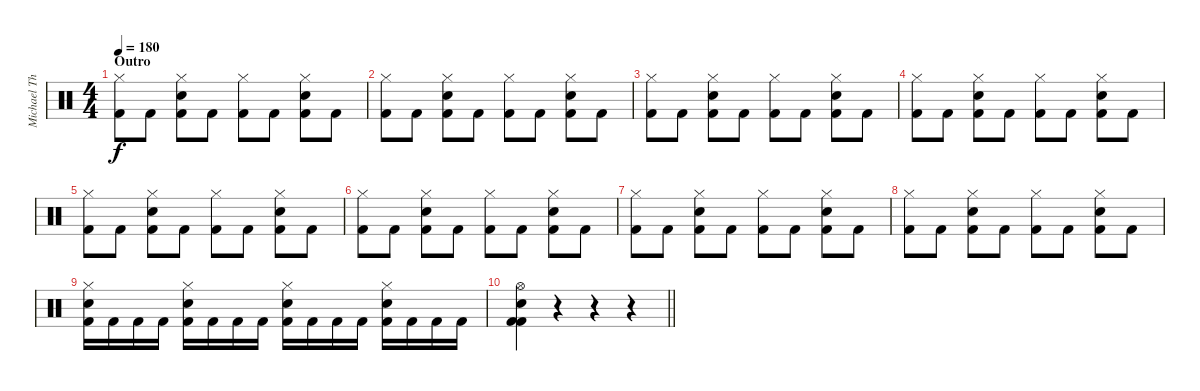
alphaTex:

\track ("Michael Thomas" "Michael Th") {instrument percussion}
\staff
\articulation defaults
\ts (4 4)
\section ("" "Outro")
\tempo 180
\clef neutral
\ks c
("Hi-Hat (closed)" "Kick (hit) 2").8{dy f} "Kick (hit) 2".8 ("Hi-Hat (closed)" "Electric Snare (hit)" "Kick (hit) 2").8 "Kick (hit) 2".8 ("Hi-Hat (closed)" "Kick (hit) 2").8 "Kick (hit) 2".8 ("Hi-Hat (closed)" "Electric Snare (hit)" "Kick (hit) 2").8 "Kick (hit) 2".8 |
("Hi-Hat (closed)" "Kick (hit) 2").8 "Kick (hit) 2".8 ("Hi-Hat (closed)" "Electric Snare (hit)" "Kick (hit) 2").8 "Kick (hit) 2".8 ("Hi-Hat (closed)" "Kick (hit) 2").8 "Kick (hit) 2".8 ("Hi-Hat (closed)" "Electric Snare (hit)" "Kick (hit) 2").8 "Kick (hit) 2".8 |
("Hi-Hat (closed)" "Kick (hit) 2").8 "Kick (hit) 2".8 ("Hi-Hat (closed)" "Electric Snare (hit)" "Kick (hit) 2").8 "Kick (hit) 2".8 ("Hi-Hat (closed)" "Kick (hit) 2").8 "Kick (hit) 2".8 ("Hi-Hat (closed)" "Electric Snare (hit)" "Kick (hit) 2").8 "Kick (hit) 2".8 |
("Hi-Hat (closed)" "Kick (hit) 2").8 "Kick (hit) 2".8 ("Hi-Hat (closed)" "Electric Snare (hit)" "Kick (hit) 2").8 "Kick (hit) 2".8 ("Hi-Hat (closed)" "Kick (hit) 2").8 "Kick (hit) 2".8 ("Hi-Hat (closed)" "Electric Snare (hit)" "Kick (hit) 2").8 "Kick (hit) 2".8 |
("Hi-Hat (closed)" "Kick (hit) 2").8 "Kick (hit) 2".8 ("Hi-Hat (closed)" "Electric Snare (hit)" "Kick (hit) 2").8 "Kick (hit) 2".8 ("Hi-Hat (closed)" "Kick (hit) 2").8 "Kick (hit) 2".8 ("Hi-Hat (closed)" "Electric Snare (hit)" "Kick (hit) 2").8 "Kick (hit) 2".8 |
("Hi-Hat (closed)" "Kick (hit) 2").8 "Kick (hit) 2".8 ("Hi-Hat (closed)" "Electric Snare (hit)" "Kick (hit) 2").8 "Kick (hit) 2".8 ("Hi-Hat (closed)" "Kick (hit) 2").8 "Kick (hit) 2".8 ("Hi-Hat (closed)" "Electric Snare (hit)" "Kick (hit) 2").8 "Kick (hit) 2".8 |
("Hi-Hat (closed)" "Kick (hit) 2").8 "Kick (hit) 2".8 ("Hi-Hat (closed)" "Electric Snare (hit)" "Kick (hit) 2").8 "Kick (hit) 2".8 ("Hi-Hat (closed)" "Kick (hit) 2").8 "Kick (hit) 2".8 ("Hi-Hat (closed)" "Electric Snare (hit)" "Kick (hit) 2").8 "Kick (hit) 2".8 |
("Hi-Hat (closed)" "Kick (hit) 2").8 "Kick (hit) 2".8 ("Hi-Hat (closed)" "Electric Snare (hit)" "Kick (hit) 2").8 "Kick (hit) 2".8 ("Hi-Hat (closed)" "Kick (hit) 2").8 "Kick (hit) 2".8 ("Hi-Hat (closed)" "Electric Snare (hit)" "Kick (hit) 2").8 "Kick (hit) 2".8 |
("Hi-Hat (closed)" "Electric Snare (hit)" "Kick (hit) 2").16 "Kick (hit) 2".16 "Kick (hit) 2".16 "Kick (hit) 2".16 ("Hi-Hat (closed)" "Electric Snare (hit)" "Kick (hit) 2").16 "Kick (hit) 2".16 "Kick (hit) 2".16 "Kick (hit) 2".16 ("Hi-Hat (closed)" "Electric Snare (hit)" "Kick (hit) 2").16 "Kick (hit) 2".16 "Kick (hit) 2".16 "Kick (hit) 2".16 ("Hi-Hat (closed)" "Electric Snare (hit)" "Kick (hit) 2").16 "Kick (hit) 2".16 "Kick (hit) 2".16 "Kick (hit) 2".16 |
\barLineRight lightlight
("Hi-Hat (open)" "Electric Snare (hit)" "Kick (hit) 2" "Kick (hit) 2").4 r.4 r.4 r.4
